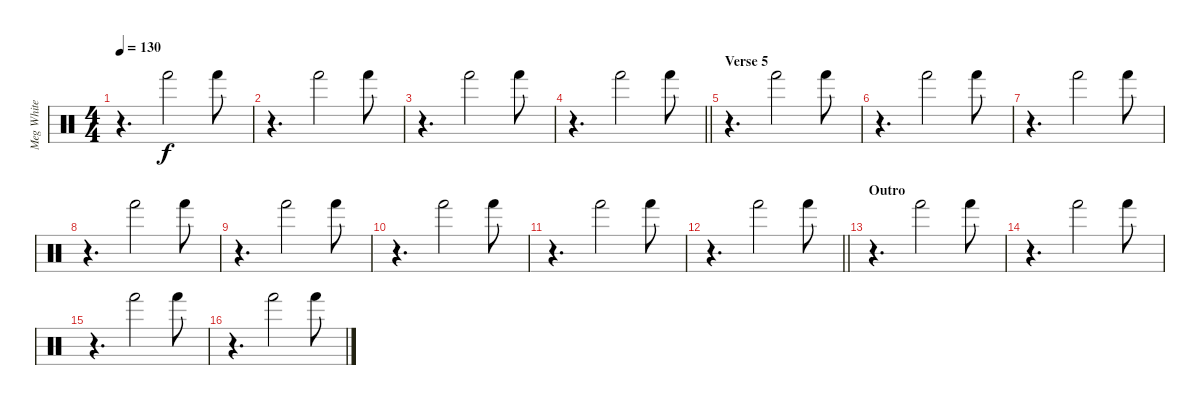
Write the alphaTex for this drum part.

\track ("Meg White" "Meg White") {instrument percussion}
\staff {score}
\articulation defaults
\ts (4 4)
\tempo 130
\clef neutral
\ks c
r.4{d dy f} "Hand (hit)".2 "Hand (hit)".8 |
r.4{d} "Hand (hit)".2 "Hand (hit)".8 |
r.4{d} "Hand (hit)".2 "Hand (hit)".8 |
\barLineRight lightlight
r.4{d} "Hand (hit)".2 "Hand (hit)".8 |
\section ("" "Verse 5")
r.4{d} "Hand (hit)".2 "Hand (hit)".8 |
r.4{d} "Hand (hit)".2 "Hand (hit)".8 |
r.4{d} "Hand (hit)".2 "Hand (hit)".8 |
r.4{d} "Hand (hit)".2 "Hand (hit)".8 |
r.4{d} "Hand (hit)".2 "Hand (hit)".8 |
r.4{d} "Hand (hit)".2 "Hand (hit)".8 |
r.4{d} "Hand (hit)".2 "Hand (hit)".8 |
\barLineRight lightlight
r.4{d} "Hand (hit)".2 "Hand (hit)".8 |
\section ("" "Outro")
r.4{d} "Hand (hit)".2 "Hand (hit)".8 |
r.4{d} "Hand (hit)".2 "Hand (hit)".8 |
r.4{d} "Hand (hit)".2 "Hand (hit)".8 |
r.4{d} "Hand (hit)".2 "Hand (hit)".8
